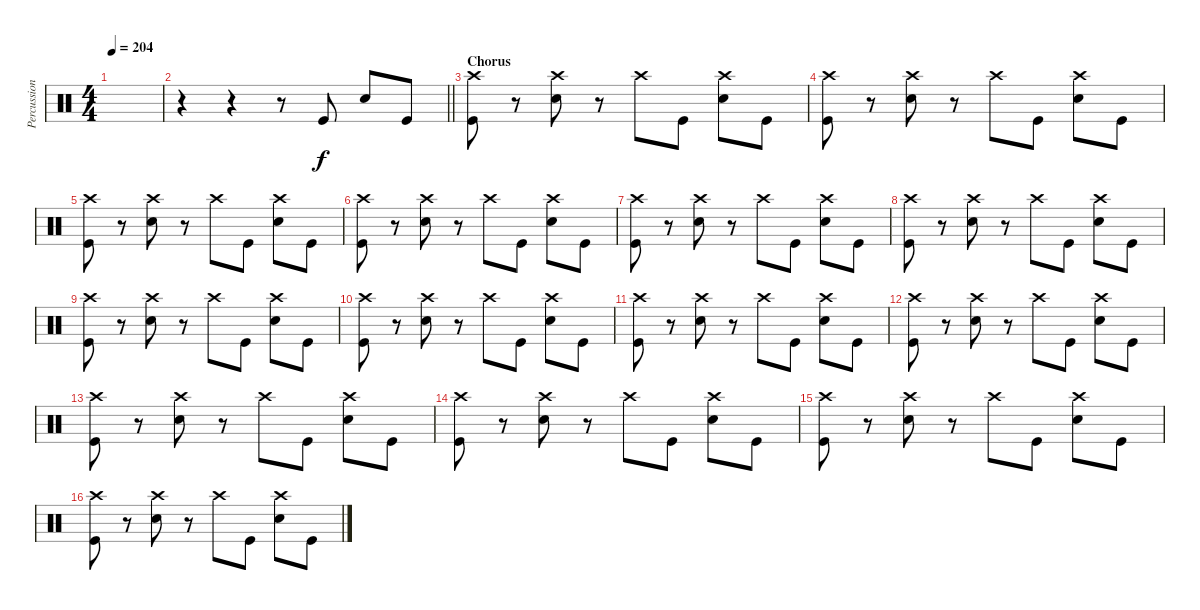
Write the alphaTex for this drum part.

\track ("Percussion" "Percussion") {instrument percussion}
\staff {score}
\articulation defaults
\ts (4 4)
\tempo 204
\clef neutral
\ks c
|
\barLineRight lightlight
r.4 r.4 r.8 "Kick (hit)".8 "Snare (hit) 2".8 "Kick (hit)".8 |
\section ("" "Chorus")
("Crash high (hit)" "Kick (hit)").8 r.8 ("Crash high (hit)" "Snare (hit) 2").8 r.8 "Crash high (hit)".8 "Kick (hit)".8 ("Crash high (hit)" "Snare (hit) 2").8 "Kick (hit)".8 |
("Crash high (hit)" "Kick (hit)").8 r.8 ("Crash high (hit)" "Snare (hit) 2").8 r.8 "Crash high (hit)".8 "Kick (hit)".8 ("Crash high (hit)" "Snare (hit) 2").8 "Kick (hit)".8 |
("Crash high (hit)" "Kick (hit)").8 r.8 ("Crash high (hit)" "Snare (hit) 2").8 r.8 "Crash high (hit)".8 "Kick (hit)".8 ("Crash high (hit)" "Snare (hit) 2").8 "Kick (hit)".8 |
("Crash high (hit)" "Kick (hit)").8 r.8 ("Crash high (hit)" "Snare (hit) 2").8 r.8 "Crash high (hit)".8 "Kick (hit)".8 ("Crash high (hit)" "Snare (hit) 2").8 "Kick (hit)".8 |
("Crash high (hit)" "Kick (hit)").8 r.8 ("Crash high (hit)" "Snare (hit) 2").8 r.8 "Crash high (hit)".8 "Kick (hit)".8 ("Crash high (hit)" "Snare (hit) 2").8 "Kick (hit)".8 |
("Crash high (hit)" "Kick (hit)").8 r.8 ("Crash high (hit)" "Snare (hit) 2").8 r.8 "Crash high (hit)".8 "Kick (hit)".8 ("Crash high (hit)" "Snare (hit) 2").8 "Kick (hit)".8 |
("Crash high (hit)" "Kick (hit)").8 r.8 ("Crash high (hit)" "Snare (hit) 2").8 r.8 "Crash high (hit)".8 "Kick (hit)".8 ("Crash high (hit)" "Snare (hit) 2").8 "Kick (hit)".8 |
("Crash high (hit)" "Kick (hit)").8 r.8 ("Crash high (hit)" "Snare (hit) 2").8 r.8 "Crash high (hit)".8 "Kick (hit)".8 ("Crash high (hit)" "Snare (hit) 2").8 "Kick (hit)".8 |
("Crash high (hit)" "Kick (hit)").8 r.8 ("Crash high (hit)" "Snare (hit) 2").8 r.8 "Crash high (hit)".8 "Kick (hit)".8 ("Crash high (hit)" "Snare (hit) 2").8 "Kick (hit)".8 |
("Crash high (hit)" "Kick (hit)").8 r.8 ("Crash high (hit)" "Snare (hit) 2").8 r.8 "Crash high (hit)".8 "Kick (hit)".8 ("Crash high (hit)" "Snare (hit) 2").8 "Kick (hit)".8 |
("Crash high (hit)" "Kick (hit)").8 r.8 ("Crash high (hit)" "Snare (hit) 2").8 r.8 "Crash high (hit)".8 "Kick (hit)".8 ("Crash high (hit)" "Snare (hit) 2").8 "Kick (hit)".8 |
("Crash high (hit)" "Kick (hit)").8 r.8 ("Crash high (hit)" "Snare (hit) 2").8 r.8 "Crash high (hit)".8 "Kick (hit)".8 ("Crash high (hit)" "Snare (hit) 2").8 "Kick (hit)".8 |
("Crash high (hit)" "Kick (hit)").8 r.8 ("Crash high (hit)" "Snare (hit) 2").8 r.8 "Crash high (hit)".8 "Kick (hit)".8 ("Crash high (hit)" "Snare (hit) 2").8 "Kick (hit)".8 |
("Crash high (hit)" "Kick (hit)").8 r.8 ("Crash high (hit)" "Snare (hit) 2").8 r.8 "Crash high (hit)".8 "Kick (hit)".8 ("Crash high (hit)" "Snare (hit) 2").8 "Kick (hit)".8
